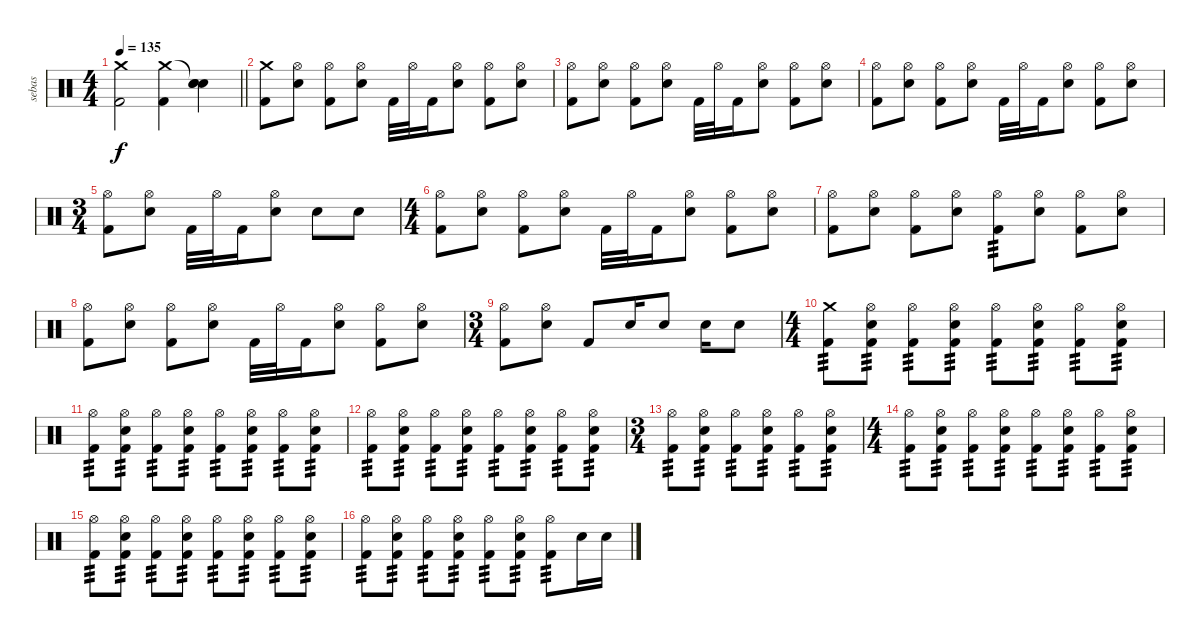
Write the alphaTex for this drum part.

\track ("sebas" "sebas") {instrument percussion}
\staff {score}
\articulation defaults
\ts (4 4)
\tempo 135
\clef neutral
\barLineRight lightlight
\ks c
("Crash medium (hit)" "Kick (hit) 2").2{dy f} ("Crash medium (hit)" "Kick (hit) 2").4 ("Snare (hit)"{t} "Snare (hit) 2" "Snare (hit)").4 |
("Crash medium (hit)" "Kick (hit) 2").8 ("Hi-Hat (open)" "Snare (hit) 2").8 ("Hi-Hat (open)" "Kick (hit) 2").8 ("Hi-Hat (open)" "Snare (hit) 2").8 "Kick (hit) 2".32 "Hi-Hat (open)".32 "Kick (hit) 2".16 ("Hi-Hat (open)" "Snare (hit) 2").8 ("Hi-Hat (open)" "Kick (hit) 2").8 ("Hi-Hat (open)" "Snare (hit) 2").8 |
("Hi-Hat (open)" "Kick (hit) 2").8 ("Hi-Hat (open)" "Snare (hit) 2").8 ("Hi-Hat (open)" "Kick (hit) 2").8 ("Hi-Hat (open)" "Snare (hit) 2").8 "Kick (hit) 2".32 "Hi-Hat (open)".32 "Kick (hit) 2".16 ("Hi-Hat (open)" "Snare (hit) 2").8 ("Hi-Hat (open)" "Kick (hit) 2").8 ("Hi-Hat (open)" "Snare (hit) 2").8 |
("Hi-Hat (open)" "Kick (hit) 2").8 ("Hi-Hat (open)" "Snare (hit) 2").8 ("Hi-Hat (open)" "Kick (hit) 2").8 ("Hi-Hat (open)" "Snare (hit) 2").8 "Kick (hit) 2".32 "Hi-Hat (open)".32 "Kick (hit) 2".16 ("Hi-Hat (open)" "Snare (hit) 2").8 ("Hi-Hat (open)" "Kick (hit) 2").8 ("Hi-Hat (open)" "Snare (hit) 2").8 |
\ts (3 4)
("Hi-Hat (open)" "Kick (hit) 2").8 ("Hi-Hat (open)" "Snare (hit) 2").8 "Kick (hit) 2".32 "Hi-Hat (open)".32 "Kick (hit) 2".16 ("Hi-Hat (open)" "Snare (hit) 2").8 "Snare (hit) 2".8 "Snare (hit) 2".8 |
\ts (4 4)
("Hi-Hat (open)" "Kick (hit) 2").8 ("Hi-Hat (open)" "Snare (hit) 2").8 ("Hi-Hat (open)" "Kick (hit) 2").8 ("Hi-Hat (open)" "Snare (hit) 2").8 "Kick (hit) 2".32 "Hi-Hat (open)".32 "Kick (hit) 2".16 ("Hi-Hat (open)" "Snare (hit) 2").8 ("Hi-Hat (open)" "Kick (hit) 2").8 ("Hi-Hat (open)" "Snare (hit) 2").8 |
("Hi-Hat (open)" "Kick (hit) 2").8 ("Hi-Hat (open)" "Snare (hit) 2").8 ("Hi-Hat (open)" "Kick (hit) 2").8 ("Hi-Hat (open)" "Snare (hit) 2").8 ("Hi-Hat (open)" "Kick (hit) 2").8{tp 3} ("Hi-Hat (open)" "Snare (hit) 2").8 ("Hi-Hat (open)" "Kick (hit) 2").8 ("Hi-Hat (open)" "Snare (hit) 2").8 |
("Hi-Hat (open)" "Kick (hit) 2").8 ("Hi-Hat (open)" "Snare (hit) 2").8 ("Hi-Hat (open)" "Kick (hit) 2").8 ("Hi-Hat (open)" "Snare (hit) 2").8 "Kick (hit) 2".32 "Hi-Hat (open)".32 "Kick (hit) 2".16 ("Hi-Hat (open)" "Snare (hit) 2").8 ("Hi-Hat (open)" "Kick (hit) 2").8 ("Hi-Hat (open)" "Snare (hit) 2").8 |
\ts (3 4)
("Hi-Hat (open)" "Kick (hit) 2").8 ("Hi-Hat (open)" "Snare (hit) 2").8 "Kick (hit) 2".8 "Snare (hit) 2".16 "Snare (hit) 2".8 "Snare (hit) 2".16 "Snare (hit) 2".8 |
\ts (4 4)
("Crash medium (hit)" "Kick (hit) 2").8{tp 3} ("Hi-Hat (open)" "Snare (hit) 2" "Kick (hit) 2").8{tp 3} ("Hi-Hat (open)" "Kick (hit) 2").8{tp 3} ("Hi-Hat (open)" "Snare (hit) 2" "Kick (hit) 2").8{tp 3} ("Hi-Hat (open)" "Kick (hit) 2").8{tp 3} ("Hi-Hat (open)" "Snare (hit) 2" "Kick (hit) 2").8{tp 3} ("Hi-Hat (open)" "Kick (hit) 2").8{tp 3} ("Hi-Hat (open)" "Snare (hit) 2" "Kick (hit) 2").8{tp 3} |
("Hi-Hat (open)" "Kick (hit) 2").8{tp 3} ("Hi-Hat (open)" "Snare (hit) 2" "Kick (hit) 2").8{tp 3} ("Hi-Hat (open)" "Kick (hit) 2").8{tp 3} ("Hi-Hat (open)" "Snare (hit) 2" "Kick (hit) 2").8{tp 3} ("Hi-Hat (open)" "Kick (hit) 2").8{tp 3} ("Hi-Hat (open)" "Snare (hit) 2" "Kick (hit) 2").8{tp 3} ("Hi-Hat (open)" "Kick (hit) 2").8{tp 3} ("Hi-Hat (open)" "Snare (hit) 2" "Kick (hit) 2").8{tp 3} |
("Hi-Hat (open)" "Kick (hit) 2").8{tp 3} ("Hi-Hat (open)" "Snare (hit) 2" "Kick (hit) 2").8{tp 3} ("Hi-Hat (open)" "Kick (hit) 2").8{tp 3} ("Hi-Hat (open)" "Snare (hit) 2" "Kick (hit) 2").8{tp 3} ("Hi-Hat (open)" "Kick (hit) 2").8{tp 3} ("Hi-Hat (open)" "Snare (hit) 2" "Kick (hit) 2").8{tp 3} ("Hi-Hat (open)" "Kick (hit) 2").8{tp 3} ("Hi-Hat (open)" "Snare (hit) 2" "Kick (hit) 2").8{tp 3} |
\ts (3 4)
("Hi-Hat (open)" "Kick (hit) 2").8{tp 3} ("Hi-Hat (open)" "Snare (hit) 2" "Kick (hit) 2").8{tp 3} ("Hi-Hat (open)" "Kick (hit) 2").8{tp 3} ("Hi-Hat (open)" "Snare (hit) 2" "Kick (hit) 2").8{tp 3} ("Hi-Hat (open)" "Kick (hit) 2").8{tp 3} ("Hi-Hat (open)" "Snare (hit) 2" "Kick (hit) 2").8{tp 3} |
\ts (4 4)
("Hi-Hat (open)" "Kick (hit) 2").8{tp 3} ("Hi-Hat (open)" "Snare (hit) 2" "Kick (hit) 2").8{tp 3} ("Hi-Hat (open)" "Kick (hit) 2").8{tp 3} ("Hi-Hat (open)" "Snare (hit) 2" "Kick (hit) 2").8{tp 3} ("Hi-Hat (open)" "Kick (hit) 2").8{tp 3} ("Hi-Hat (open)" "Snare (hit) 2" "Kick (hit) 2").8{tp 3} ("Hi-Hat (open)" "Kick (hit) 2").8{tp 3} ("Hi-Hat (open)" "Snare (hit) 2" "Kick (hit) 2").8{tp 3} |
("Hi-Hat (open)" "Kick (hit) 2").8{tp 3} ("Hi-Hat (open)" "Snare (hit) 2" "Kick (hit) 2").8{tp 3} ("Hi-Hat (open)" "Kick (hit) 2").8{tp 3} ("Hi-Hat (open)" "Snare (hit) 2" "Kick (hit) 2").8{tp 3} ("Hi-Hat (open)" "Kick (hit) 2").8{tp 3} ("Hi-Hat (open)" "Snare (hit) 2" "Kick (hit) 2").8{tp 3} ("Hi-Hat (open)" "Kick (hit) 2").8{tp 3} ("Hi-Hat (open)" "Snare (hit) 2" "Kick (hit) 2").8{tp 3} |
("Hi-Hat (open)" "Kick (hit) 2").8{tp 3} ("Hi-Hat (open)" "Snare (hit) 2" "Kick (hit) 2").8{tp 3} ("Hi-Hat (open)" "Kick (hit) 2").8{tp 3} ("Hi-Hat (open)" "Snare (hit) 2" "Kick (hit) 2").8{tp 3} ("Hi-Hat (open)" "Kick (hit) 2").8{tp 3} ("Hi-Hat (open)" "Snare (hit) 2" "Kick (hit) 2").8{tp 3} ("Hi-Hat (open)" "Kick (hit) 2").8{tp 3} "Snare (hit) 2".16 "Snare (hit) 2".16
